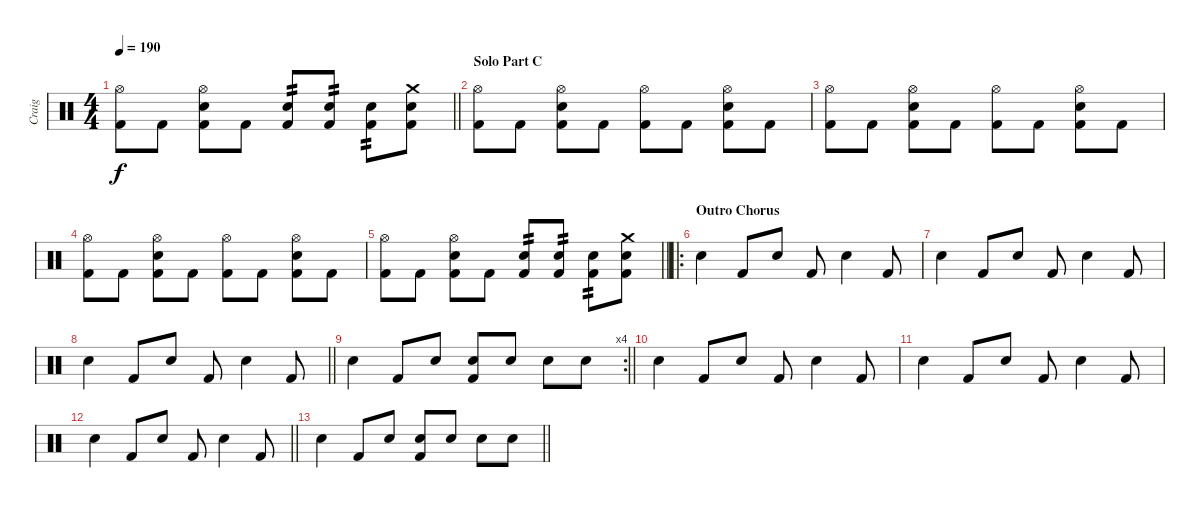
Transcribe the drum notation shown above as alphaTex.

\track ("Craig" "Craig") {instrument percussion}
\staff {score}
\articulation defaults
\ts (4 4)
\tempo 190
\clef neutral
\barLineRight lightlight
\ks c
("Hi-Hat (open)" "Kick (hit) 2").8{dy f} "Kick (hit) 2".8 ("Hi-Hat (open)" "Snare (hit) 2" "Kick (hit) 2").8 "Kick (hit) 2".8 ("Snare (hit) 2" "Kick (hit) 2").8{tp 2} ("Snare (hit) 2" "Kick (hit) 2").8{tp 2} ("Snare (hit) 2" "Kick (hit) 2").8{tp 2} ("Crash medium (hit)" "Snare (hit) 2" "Kick (hit) 2").8 |
\section ("" "Solo Part C")
("Hi-Hat (open)" "Kick (hit) 2").8 "Kick (hit) 2".8 ("Hi-Hat (open)" "Snare (hit) 2" "Kick (hit) 2").8 "Kick (hit) 2".8 ("Hi-Hat (open)" "Kick (hit) 2").8 "Kick (hit) 2".8 ("Hi-Hat (open)" "Snare (hit) 2" "Kick (hit) 2").8 "Kick (hit) 2".8 |
("Hi-Hat (open)" "Kick (hit) 2").8 "Kick (hit) 2".8 ("Hi-Hat (open)" "Snare (hit) 2" "Kick (hit) 2").8 "Kick (hit) 2".8 ("Hi-Hat (open)" "Kick (hit) 2").8 "Kick (hit) 2".8 ("Hi-Hat (open)" "Snare (hit) 2" "Kick (hit) 2").8 "Kick (hit) 2".8 |
("Hi-Hat (open)" "Kick (hit) 2").8 "Kick (hit) 2".8 ("Hi-Hat (open)" "Snare (hit) 2" "Kick (hit) 2").8 "Kick (hit) 2".8 ("Hi-Hat (open)" "Kick (hit) 2").8 "Kick (hit) 2".8 ("Hi-Hat (open)" "Snare (hit) 2" "Kick (hit) 2").8 "Kick (hit) 2".8 |
\barLineRight lightlight
("Hi-Hat (open)" "Kick (hit) 2").8 "Kick (hit) 2".8 ("Hi-Hat (open)" "Snare (hit) 2" "Kick (hit) 2").8 "Kick (hit) 2".8 ("Snare (hit) 2" "Kick (hit) 2").8{tp 2} ("Snare (hit) 2" "Kick (hit) 2").8{tp 2} ("Snare (hit) 2" "Kick (hit) 2").8{tp 2} ("Crash medium (hit)" "Snare (hit) 2" "Kick (hit) 2").8 |
\ro
\section ("" "Outro Chorus")
"Snare (hit) 2".4 "Kick (hit) 2".8 "Snare (hit) 2".8 "Kick (hit) 2".8 "Snare (hit) 2".4 "Kick (hit) 2".8 |
"Snare (hit) 2".4 "Kick (hit) 2".8 "Snare (hit) 2".8 "Kick (hit) 2".8 "Snare (hit) 2".4 "Kick (hit) 2".8 |
\barLineRight lightlight "Snare (hit) 2".4 "Kick (hit) 2".8 "Snare (hit) 2".8 "Kick (hit) 2".8 "Snare (hit) 2".4 "Kick (hit) 2".8
|
\rc 4
\barLineRight lightlight "Snare (hit) 2".4 "Kick (hit) 2".8 "Snare (hit) 2".8
("Snare (hit) 2" "Kick (hit) 2").8 "Snare (hit) 2".8 "Snare (hit) 2".8 "Snare (hit) 2".8 |
"Snare (hit) 2".4 "Kick (hit) 2".8 "Snare (hit) 2".8 "Kick (hit) 2".8 "Snare (hit) 2".4 "Kick (hit) 2".8 |
"Snare (hit) 2".4 "Kick (hit) 2".8 "Snare (hit) 2".8 "Kick (hit) 2".8 "Snare (hit) 2".4 "Kick (hit) 2".8 |
\barLineRight lightlight "Snare (hit) 2".4 "Kick (hit) 2".8 "Snare (hit) 2".8 "Kick (hit) 2".8 "Snare (hit) 2".4 "Kick (hit) 2".8
|
\barLineRight lightlight "Snare (hit) 2".4 "Kick (hit) 2".8 "Snare (hit) 2".8
("Snare (hit) 2" "Kick (hit) 2").8 "Snare (hit) 2".8 "Snare (hit) 2".8 "Snare (hit) 2".8
